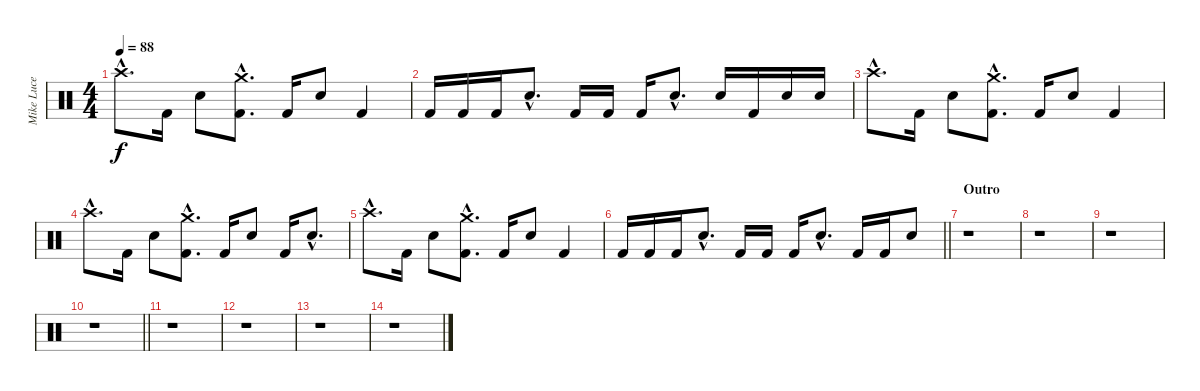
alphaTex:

\track ("Mike Luce (Drums)" "Mike Luce ") {instrument percussion}
\staff {score}
\articulation defaults
\ts (4 4)
\tempo 88
\clef neutral
\ks c "Crash high (hit)"{hac}.8{d dy f} "Kick (hit) 2".16 "Electric Snare (hit)".8
("Kick (hit) 2"{hac} "Crash medium (hit)"{hac}).8{d} "Kick (hit) 2".16 "Electric Snare (hit)".8 "Kick (hit) 2".4 |
"Kick (hit) 2".16 "Kick (hit) 2".16 "Kick (hit) 2".16 "Electric Snare (hit)"{hac}.8{d} "Kick (hit) 2".16 "Kick (hit) 2".16 "Kick (hit) 2".16 "Electric Snare (hit)"{hac}.8{d} "Electric Snare (hit)".16 "Kick (hit) 2".16 "Electric Snare (hit)".16 "Electric Snare (hit)".16 |
"Crash high (hit)"{hac}.8{d} "Kick (hit) 2".16 "Electric Snare (hit)".8 ("Kick (hit) 2"{hac} "Crash medium (hit)"{hac}).8{d} "Kick (hit) 2".16 "Electric Snare (hit)".8 "Kick (hit) 2".4 |
"Crash high (hit)"{hac}.8{d} "Kick (hit) 2".16 "Electric Snare (hit)".8 ("Kick (hit) 2"{hac} "Crash medium (hit)"{hac}).8{d} "Kick (hit) 2".16 "Electric Snare (hit)".8 "Kick (hit) 2".16 "Electric Snare (hit)"{hac}.8{d} |
"Crash high (hit)"{hac}.8{d} "Kick (hit) 2".16 "Electric Snare (hit)".8 ("Kick (hit) 2"{hac} "Crash medium (hit)"{hac}).8{d} "Kick (hit) 2".16 "Electric Snare (hit)".8 "Kick (hit) 2".4 |
\barLineRight lightlight "Kick (hit) 2".16 "Kick (hit) 2".16 "Kick (hit) 2".16 "Electric Snare (hit)"{hac}.8{d} "Kick (hit) 2".16 "Kick (hit) 2".16 "Kick (hit) 2".16 "Electric Snare (hit)"{hac}.8{d} "Kick (hit) 2".16 "Kick (hit) 2".16 "Electric Snare (hit)".8
|
\section ("" "Outro")
r.1 |
r.1 |
r.1 |
\barLineRight lightlight
r.1 |
r.1 |
r.1 |
r.1 |
r.1
